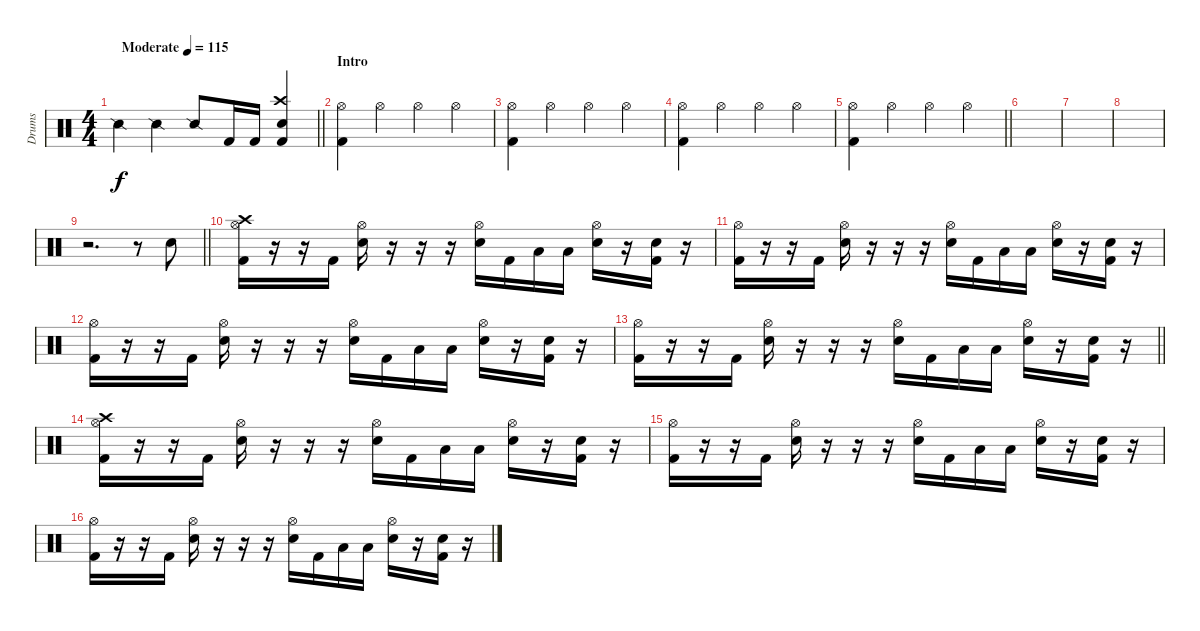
\track ("Drums" "Drums") {instrument percussion}
\staff {score}
\articulation defaults
\ts (4 4)
\tempo (115 "Moderate")
\clef neutral
\barLineRight lightlight
\ks c "Snare (side stick) 2".4{dy f} "Snare (side stick) 2".4 "Snare (side stick) 2".8 "Kick (hit) 2".16 "Kick (hit) 2".16
("Crash high (hit)" "Snare (hit) 2" "Kick (hit) 2").4 |
\section ("" "Intro")
("Hi-Hat (open)" "Kick (hit) 2").4 "Hi-Hat (open)".4 "Hi-Hat (open)".4 "Hi-Hat (open)".4 |
("Hi-Hat (open)" "Kick (hit) 2").4 "Hi-Hat (open)".4 "Hi-Hat (open)".4 "Hi-Hat (open)".4 |
("Hi-Hat (open)" "Kick (hit) 2").4 "Hi-Hat (open)".4 "Hi-Hat (open)".4 "Hi-Hat (open)".4 |
\barLineRight lightlight
("Hi-Hat (open)" "Kick (hit) 2").4 "Hi-Hat (open)".4 "Hi-Hat (open)".4 "Hi-Hat (open)".4 |
|
|
|
\barLineRight lightlight
r.2{d} r.8 "Snare (hit) 2".8 |
("Crash high (hit)" "Hi-Hat (open)" "Kick (hit) 2").16 r.16 r.16 "Kick (hit) 2".16 ("Hi-Hat (open)" "Snare (hit) 2").16 r.16 r.16 r.16 ("Hi-Hat (open)" "Snare (hit) 2").16 "Kick (hit) 2".16 "Low Tom (hit)".16 "Low Tom (hit)".16 ("Hi-Hat (open)" "Snare (hit) 2").16 r.16 ("Snare (hit) 2" "Kick (hit) 2").16 r.16 |
("Hi-Hat (open)" "Kick (hit) 2").16 r.16 r.16 "Kick (hit) 2".16 ("Hi-Hat (open)" "Snare (hit) 2").16 r.16 r.16 r.16 ("Hi-Hat (open)" "Snare (hit) 2").16 "Kick (hit) 2".16 "Low Tom (hit)".16 "Low Tom (hit)".16 ("Hi-Hat (open)" "Snare (hit) 2").16 r.16 ("Snare (hit) 2" "Kick (hit) 2").16 r.16 |
("Hi-Hat (open)" "Kick (hit) 2").16 r.16 r.16 "Kick (hit) 2".16 ("Hi-Hat (open)" "Snare (hit) 2").16 r.16 r.16 r.16 ("Hi-Hat (open)" "Snare (hit) 2").16 "Kick (hit) 2".16 "Low Tom (hit)".16 "Low Tom (hit)".16 ("Hi-Hat (open)" "Snare (hit) 2").16 r.16 ("Snare (hit) 2" "Kick (hit) 2").16 r.16 |
\barLineRight lightlight
("Hi-Hat (open)" "Kick (hit) 2").16 r.16 r.16 "Kick (hit) 2".16 ("Hi-Hat (open)" "Snare (hit) 2").16 r.16 r.16 r.16 ("Hi-Hat (open)" "Snare (hit) 2").16 "Kick (hit) 2".16 "Low Tom (hit)".16 "Low Tom (hit)".16 ("Hi-Hat (open)" "Snare (hit) 2").16 r.16 ("Snare (hit) 2" "Kick (hit) 2").16 r.16 |
("Crash high (hit)" "Hi-Hat (open)" "Kick (hit) 2").16 r.16 r.16 "Kick (hit) 2".16 ("Hi-Hat (open)" "Snare (hit) 2").16 r.16 r.16 r.16 ("Hi-Hat (open)" "Snare (hit) 2").16 "Kick (hit) 2".16 "Low Tom (hit)".16 "Low Tom (hit)".16 ("Hi-Hat (open)" "Snare (hit) 2").16 r.16 ("Snare (hit) 2" "Kick (hit) 2").16 r.16 |
("Hi-Hat (open)" "Kick (hit) 2").16 r.16 r.16 "Kick (hit) 2".16 ("Hi-Hat (open)" "Snare (hit) 2").16 r.16 r.16 r.16 ("Hi-Hat (open)" "Snare (hit) 2").16 "Kick (hit) 2".16 "Low Tom (hit)".16 "Low Tom (hit)".16 ("Hi-Hat (open)" "Snare (hit) 2").16 r.16 ("Snare (hit) 2" "Kick (hit) 2").16 r.16 |
("Hi-Hat (open)" "Kick (hit) 2").16 r.16 r.16 "Kick (hit) 2".16 ("Hi-Hat (open)" "Snare (hit) 2").16 r.16 r.16 r.16 ("Hi-Hat (open)" "Snare (hit) 2").16 "Kick (hit) 2".16 "Low Tom (hit)".16 "Low Tom (hit)".16 ("Hi-Hat (open)" "Snare (hit) 2").16 r.16 ("Snare (hit) 2" "Kick (hit) 2").16 r.16
